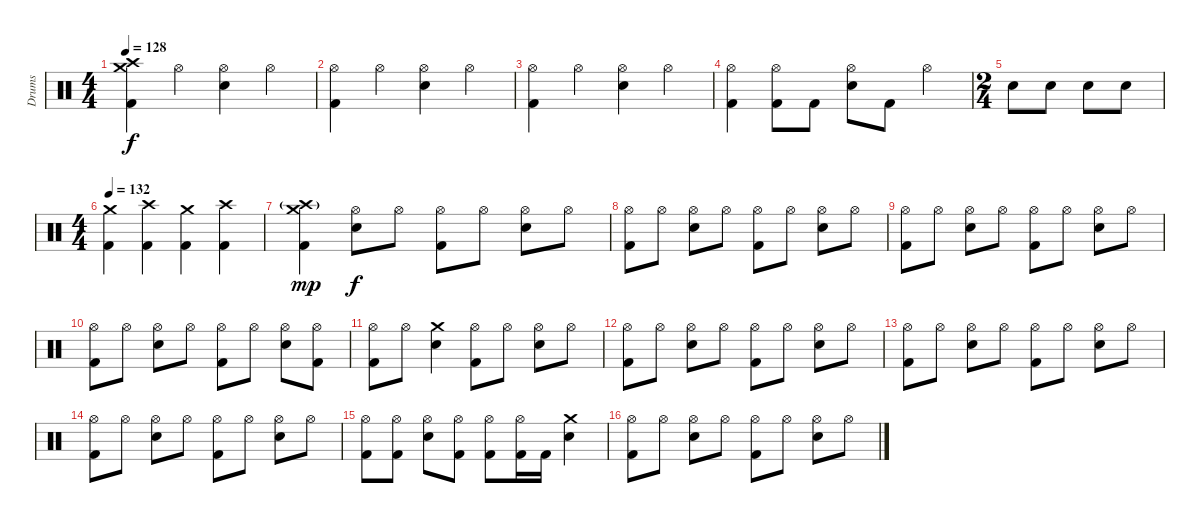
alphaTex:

\track ("Drums" "Drums") {instrument percussion}
\staff {score}
\articulation defaults
\ts (4 4)
\tempo 128
\clef neutral
\ks c
("Crash medium (hit)" "Crash high (hit)" "Kick (hit) 2").4{dy f} "Hi-Hat (open)".4 ("Hi-Hat (open)" "Snare (hit) 2").4 "Hi-Hat (open)".4 |
("Hi-Hat (open)" "Kick (hit) 2").4 "Hi-Hat (open)".4 ("Hi-Hat (open)" "Snare (hit) 2").4 "Hi-Hat (open)".4 |
("Hi-Hat (open)" "Kick (hit) 2").4 "Hi-Hat (open)".4 ("Hi-Hat (open)" "Snare (hit) 2").4 "Hi-Hat (open)".4 |
("Hi-Hat (open)" "Kick (hit) 2").4 ("Hi-Hat (open)" "Kick (hit) 2").8 "Kick (hit) 2".8 ("Hi-Hat (open)" "Snare (hit) 2").8 "Kick (hit) 2".8 "Hi-Hat (open)".4 |
\ts (2 4)
"Snare (hit) 2".8 "Snare (hit) 2".8 "Snare (hit) 2".8 "Snare (hit) 2".8 |
\ts (4 4)
\tempo 132
("Crash medium (hit)" "Kick (hit) 2").4 ("Crash high (hit)" "Kick (hit) 2").4 ("Crash medium (hit)" "Kick (hit) 2").4 ("Crash high (hit)" "Kick (hit) 2").4 |
("Crash medium (hit)" "Crash high (hit)"{g} "Kick (hit) 2").4{dy mp} ("Hi-Hat (open)" "Snare (hit) 2").8{dy f} "Hi-Hat (open)".8 ("Hi-Hat (open)" "Kick (hit) 2").8 "Hi-Hat (open)".8 ("Hi-Hat (open)" "Snare (hit) 2").8 "Hi-Hat (open)".8 |
("Hi-Hat (open)" "Kick (hit) 2").8 "Hi-Hat (open)".8 ("Hi-Hat (open)" "Snare (hit) 2").8 "Hi-Hat (open)".8 ("Hi-Hat (open)" "Kick (hit) 2").8 "Hi-Hat (open)".8 ("Hi-Hat (open)" "Snare (hit) 2").8 "Hi-Hat (open)".8 |
("Hi-Hat (open)" "Kick (hit) 2").8 "Hi-Hat (open)".8 ("Hi-Hat (open)" "Snare (hit) 2").8 "Hi-Hat (open)".8 ("Hi-Hat (open)" "Kick (hit) 2").8 "Hi-Hat (open)".8 ("Hi-Hat (open)" "Snare (hit) 2").8 "Hi-Hat (open)".8 |
("Hi-Hat (open)" "Kick (hit) 2").8 "Hi-Hat (open)".8 ("Hi-Hat (open)" "Snare (hit) 2").8 "Hi-Hat (open)".8 ("Hi-Hat (open)" "Kick (hit) 2").8 "Hi-Hat (open)".8 ("Hi-Hat (open)" "Snare (hit) 2").8 ("Hi-Hat (open)" "Kick (hit) 2").8 |
("Hi-Hat (open)" "Kick (hit) 2").8 "Hi-Hat (open)".8 ("Crash medium (hit)" "Snare (hit) 2").4 ("Hi-Hat (open)" "Kick (hit) 2").8 "Hi-Hat (open)".8 ("Hi-Hat (open)" "Snare (hit) 2").8 "Hi-Hat (open)".8 |
("Hi-Hat (open)" "Kick (hit) 2").8 "Hi-Hat (open)".8 ("Hi-Hat (open)" "Snare (hit) 2").8 "Hi-Hat (open)".8 ("Hi-Hat (open)" "Kick (hit) 2").8 "Hi-Hat (open)".8 ("Hi-Hat (open)" "Snare (hit) 2").8 "Hi-Hat (open)".8 |
("Hi-Hat (open)" "Kick (hit) 2").8 "Hi-Hat (open)".8 ("Hi-Hat (open)" "Snare (hit) 2").8 "Hi-Hat (open)".8 ("Hi-Hat (open)" "Kick (hit) 2").8 "Hi-Hat (open)".8 ("Hi-Hat (open)" "Snare (hit) 2").8 "Hi-Hat (open)".8 |
("Hi-Hat (open)" "Kick (hit) 2").8 "Hi-Hat (open)".8 ("Hi-Hat (open)" "Snare (hit) 2").8 "Hi-Hat (open)".8 ("Hi-Hat (open)" "Kick (hit) 2").8 "Hi-Hat (open)".8 ("Hi-Hat (open)" "Snare (hit) 2").8 "Hi-Hat (open)".8 |
("Hi-Hat (open)" "Kick (hit) 2").8 ("Hi-Hat (open)" "Kick (hit) 2").8 ("Hi-Hat (open)" "Snare (hit) 2").8 ("Hi-Hat (open)" "Kick (hit) 2").8 ("Hi-Hat (open)" "Kick (hit) 2").8 ("Hi-Hat (open)" "Kick (hit) 2").16 "Kick (hit) 2".16 ("Crash medium (hit)" "Snare (hit) 2").4 |
("Hi-Hat (open)" "Kick (hit) 2").8 "Hi-Hat (open)".8 ("Hi-Hat (open)" "Snare (hit) 2").8 "Hi-Hat (open)".8 ("Hi-Hat (open)" "Kick (hit) 2").8 "Hi-Hat (open)".8 ("Hi-Hat (open)" "Snare (hit) 2").8 "Hi-Hat (open)".8
